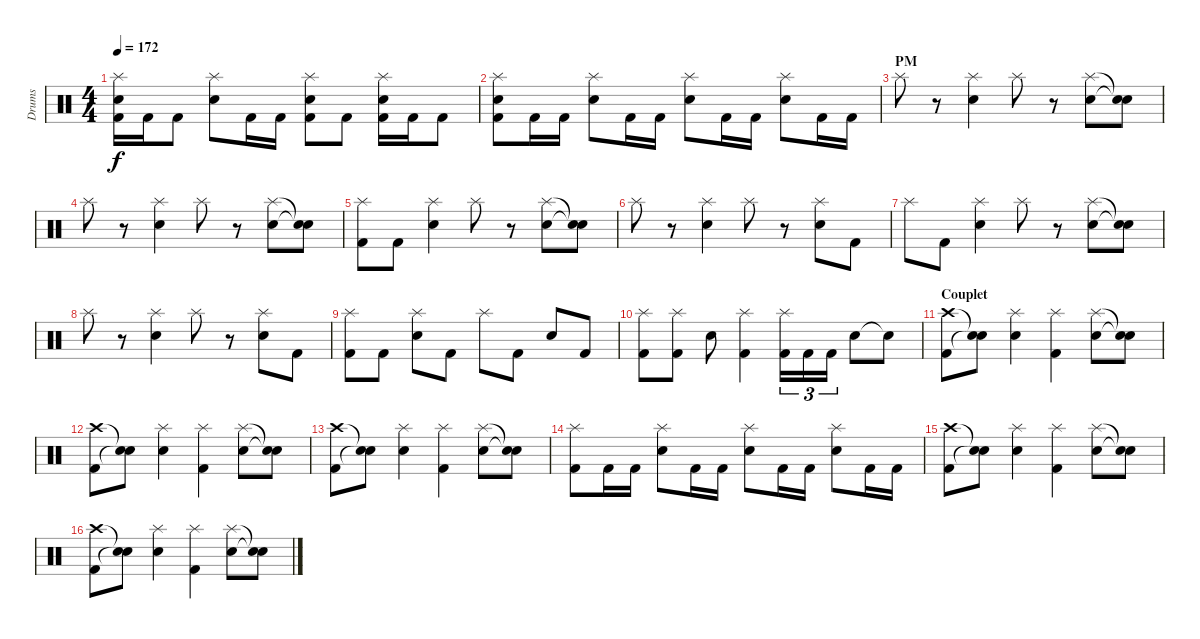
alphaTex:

\track ("Drums" "Drums") {instrument percussion}
\staff {score}
\articulation defaults
\ts (4 4)
\tempo 172
\clef neutral
\ks c
("Splash (hit)" "Electric Snare (hit)" "Kick (hit) 2").16{dy f} "Kick (hit) 2".16 "Kick (hit) 2".8 ("Splash (hit)" "Electric Snare (hit)").8 "Kick (hit) 2".16 "Kick (hit) 2".16 ("Splash (hit)" "Electric Snare (hit)" "Kick (hit) 2").8 "Kick (hit) 2".8 ("Splash (hit)" "Electric Snare (hit)" "Kick (hit) 2").16 "Kick (hit) 2".16 "Kick (hit) 2".8 |
("Splash (hit)" "Electric Snare (hit)" "Kick (hit) 2").8 "Kick (hit) 2".16 "Kick (hit) 2".16 ("Splash (hit)" "Electric Snare (hit)").8 "Kick (hit) 2".16 "Kick (hit) 2".16 ("Splash (hit)" "Electric Snare (hit)").8 "Kick (hit) 2".16 "Kick (hit) 2".16 ("Splash (hit)" "Electric Snare (hit)").8 "Kick (hit) 2".16 "Kick (hit) 2".16 |
\section ("" "PM")
"Splash (hit)".8 r.8 ("Splash (hit)" "Electric Snare (hit)").4 "Splash (hit)".8 r.8 ("Splash (hit)" "Electric Snare (hit)").8 ("Snare (hit)"{t} "Snare (hit)"{t}).8 |
"Splash (hit)".8 r.8 ("Splash (hit)" "Electric Snare (hit)").4 "Splash (hit)".8 r.8 ("Splash (hit)" "Electric Snare (hit)").8 ("Snare (hit)"{t} "Snare (hit)"{t}).8 |
("Splash (hit)" "Kick (hit) 2").8 "Kick (hit) 2".8 ("Splash (hit)" "Electric Snare (hit)").4 "Splash (hit)".8 r.8 ("Splash (hit)" "Electric Snare (hit)").8 ("Snare (hit)"{t} "Snare (hit)"{t}).8 |
"Splash (hit)".8 r.8 ("Splash (hit)" "Electric Snare (hit)").4 "Splash (hit)".8 r.8 ("Splash (hit)" "Electric Snare (hit)").8 "Kick (hit) 2".8 |
"Splash (hit)".8 "Kick (hit) 2".8 ("Splash (hit)" "Electric Snare (hit)").4 "Splash (hit)".8 r.8 ("Splash (hit)" "Electric Snare (hit)").8 ("Snare (hit)"{t} "Snare (hit)"{t}).8 |
"Splash (hit)".8 r.8 ("Splash (hit)" "Electric Snare (hit)").4 "Splash (hit)".8 r.8 ("Splash (hit)" "Electric Snare (hit)").8 "Kick (hit) 2".8 |
("Splash (hit)" "Kick (hit) 2").8 "Kick (hit) 2".8 ("Splash (hit)" "Electric Snare (hit)").8 "Kick (hit) 2".8 "Splash (hit)".8 "Kick (hit) 2".8 "Electric Snare (hit)".8 "Kick (hit) 2".8 |
("Splash (hit)" "Kick (hit) 2").8 ("Splash (hit)" "Kick (hit) 2").8 "Electric Snare (hit)".8 ("Splash (hit)" "Kick (hit) 2").4 ("Splash (hit)" "Kick (hit) 2").16{tu (3 2)} "Kick (hit) 2".16{tu (3 2)} "Kick (hit) 2".16{tu (3 2)} "Electric Snare (hit)".8 "Snare (hit)"{t}.8 |
\section ("" "Couplet")
("Crash high (hit)" "Kick (hit) 2").8 ("Snare (hit)"{t} "Snare (hit)"{t}).8 ("Splash (hit)" "Electric Snare (hit)").4 ("Splash (hit)" "Kick (hit) 2").4 ("Splash (hit)" "Electric Snare (hit)").8 ("Snare (hit)"{t} "Snare (hit)"{t}).8 |
("Crash high (hit)" "Kick (hit) 2").8 ("Snare (hit)"{t} "Snare (hit)"{t}).8 ("Splash (hit)" "Electric Snare (hit)").4 ("Splash (hit)" "Kick (hit) 2").4 ("Splash (hit)" "Electric Snare (hit)").8 ("Snare (hit)"{t} "Snare (hit)"{t}).8 |
("Crash high (hit)" "Kick (hit) 2").8 ("Snare (hit)"{t} "Snare (hit)"{t}).8 ("Splash (hit)" "Electric Snare (hit)").4 ("Splash (hit)" "Kick (hit) 2").4 ("Splash (hit)" "Electric Snare (hit)").8 ("Snare (hit)"{t} "Snare (hit)"{t}).8 |
("Splash (hit)" "Kick (hit) 2").8 "Kick (hit) 2".16 "Kick (hit) 2".16 ("Splash (hit)" "Electric Snare (hit)").8 "Kick (hit) 2".16 "Kick (hit) 2".16 ("Splash (hit)" "Electric Snare (hit)").8 "Kick (hit) 2".16 "Kick (hit) 2".16 ("Splash (hit)" "Electric Snare (hit)").8 "Kick (hit) 2".16 "Kick (hit) 2".16 |
("Crash high (hit)" "Kick (hit) 2").8 ("Snare (hit)"{t} "Snare (hit)"{t}).8 ("Splash (hit)" "Electric Snare (hit)").4 ("Splash (hit)" "Kick (hit) 2").4 ("Splash (hit)" "Electric Snare (hit)").8 ("Snare (hit)"{t} "Snare (hit)"{t}).8 |
("Crash high (hit)" "Kick (hit) 2").8 ("Snare (hit)"{t} "Snare (hit)"{t}).8 ("Splash (hit)" "Electric Snare (hit)").4 ("Splash (hit)" "Kick (hit) 2").4 ("Splash (hit)" "Electric Snare (hit)").8 ("Snare (hit)"{t} "Snare (hit)"{t}).8
